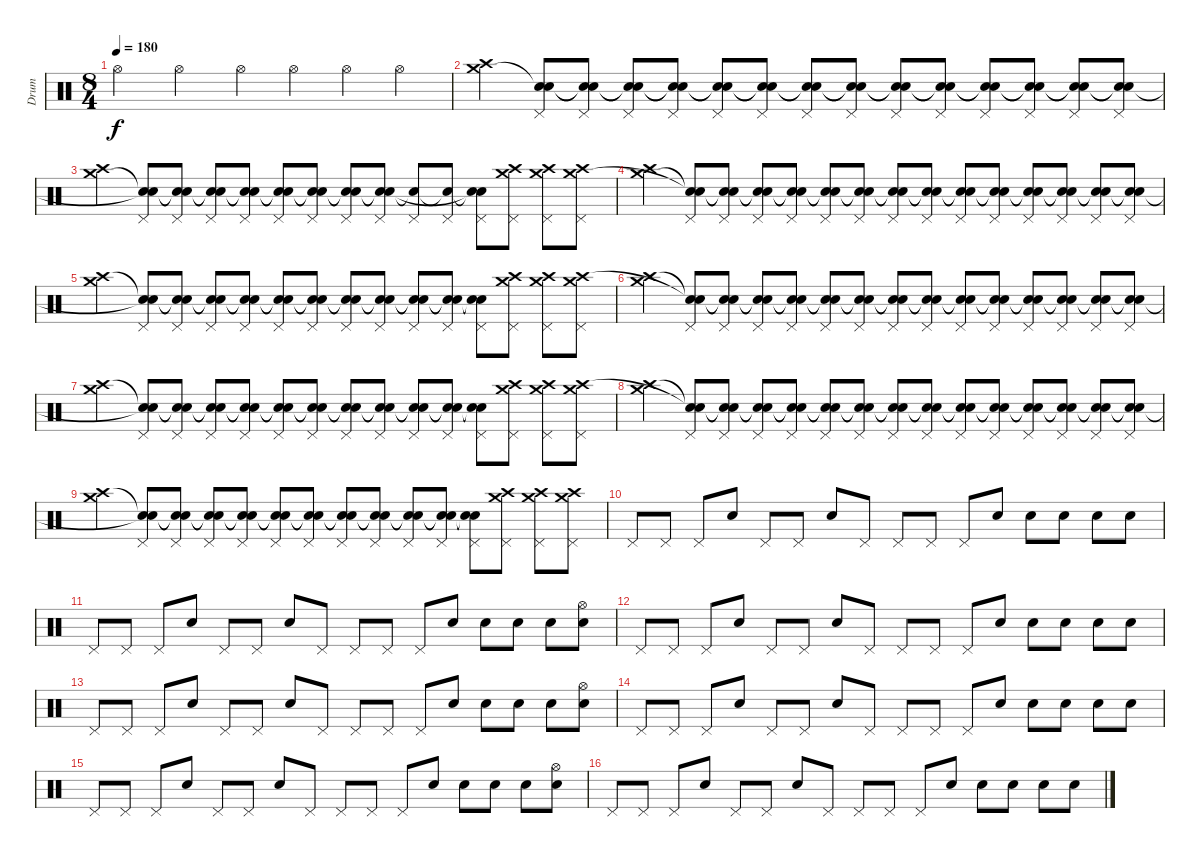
\track ("Drum" "Drum") {instrument percussion}
\staff {score}
\articulation defaults
\ts (8 4)
\tempo 180
\clef neutral
\ks c "Hi-Hat (open)".2{dy f} "Hi-Hat (open)".2 "Hi-Hat (open)".4 "Hi-Hat (open)".4 "Hi-Hat (open)".4 "Hi-Hat (open)".4
|
("Crash high (hit)" "Crash medium (hit)").4 ("Pedal Hi-Hat (hit)" "Snare (hit)"{t} "Snare (hit)").8 ("Pedal Hi-Hat (hit)" "Snare (hit)"{t} "Snare (hit)"{t}).8 ("Pedal Hi-Hat (hit)" "Snare (hit)"{t} "Snare (hit)"{t}).8 ("Pedal Hi-Hat (hit)" "Snare (hit)"{t} "Snare (hit)"{t}).8 ("Pedal Hi-Hat (hit)" "Snare (hit)"{t} "Snare (hit)"{t}).8 ("Pedal Hi-Hat (hit)" "Snare (hit)"{t} "Snare (hit)"{t}).8 ("Pedal Hi-Hat (hit)" "Snare (hit)"{t} "Snare (hit)"{t}).8 ("Pedal Hi-Hat (hit)" "Snare (hit)"{t} "Snare (hit)"{t}).8 ("Pedal Hi-Hat (hit)" "Snare (hit)"{t} "Snare (hit)"{t}).8 ("Pedal Hi-Hat (hit)" "Snare (hit)"{t} "Snare (hit)"{t}).8 ("Pedal Hi-Hat (hit)" "Snare (hit)"{t} "Snare (hit)"{t}).8 ("Pedal Hi-Hat (hit)" "Snare (hit)"{t} "Snare (hit)"{t}).8 ("Pedal Hi-Hat (hit)" "Snare (hit)"{t} "Snare (hit)"{t}).8 ("Pedal Hi-Hat (hit)" "Snare (hit)"{t} "Snare (hit)"{t}).8 |
("Crash high (hit)" "Crash medium (hit)").4 ("Pedal Hi-Hat (hit)" "Snare (hit)"{t} "Snare (hit)"{t}).8 ("Pedal Hi-Hat (hit)" "Snare (hit)"{t} "Snare (hit)"{t}).8 ("Pedal Hi-Hat (hit)" "Snare (hit)"{t} "Snare (hit)"{t}).8 ("Pedal Hi-Hat (hit)" "Snare (hit)"{t} "Snare (hit)"{t}).8 ("Pedal Hi-Hat (hit)" "Snare (hit)"{t} "Snare (hit)"{t}).8 ("Pedal Hi-Hat (hit)" "Snare (hit)"{t} "Snare (hit)"{t}).8 ("Pedal Hi-Hat (hit)" "Snare (hit)"{t} "Snare (hit)"{t}).8 ("Pedal Hi-Hat (hit)" "Snare (hit)"{t} "Snare (hit)"{t}).8 ("Pedal Hi-Hat (hit)" "Snare (hit)"{t}).8 ("Pedal Hi-Hat (hit)" "Snare (hit)"{t}).8 ("Pedal Hi-Hat (hit)" "Snare (hit)"{t} "Snare (hit)"{t}).8 ("Pedal Hi-Hat (hit)" "Crash high (hit)" "Crash medium (hit)").8 ("Pedal Hi-Hat (hit)" "Crash high (hit)" "Crash medium (hit)").8 ("Pedal Hi-Hat (hit)" "Crash high (hit)" "Crash medium (hit)").8 |
("Crash high (hit)" "Crash medium (hit)").4 ("Pedal Hi-Hat (hit)" "Snare (hit)"{t} "Snare (hit)"{t}).8 ("Pedal Hi-Hat (hit)" "Snare (hit)"{t} "Snare (hit)"{t}).8 ("Pedal Hi-Hat (hit)" "Snare (hit)"{t} "Snare (hit)"{t}).8 ("Pedal Hi-Hat (hit)" "Snare (hit)"{t} "Snare (hit)"{t}).8 ("Pedal Hi-Hat (hit)" "Snare (hit)"{t} "Snare (hit)"{t}).8 ("Pedal Hi-Hat (hit)" "Snare (hit)"{t} "Snare (hit)"{t}).8 ("Pedal Hi-Hat (hit)" "Snare (hit)"{t} "Snare (hit)"{t}).8 ("Pedal Hi-Hat (hit)" "Snare (hit)"{t} "Snare (hit)"{t}).8 ("Pedal Hi-Hat (hit)" "Snare (hit)"{t} "Snare (hit)"{t}).8 ("Pedal Hi-Hat (hit)" "Snare (hit)"{t} "Snare (hit)"{t}).8 ("Pedal Hi-Hat (hit)" "Snare (hit)"{t} "Snare (hit)"{t}).8 ("Pedal Hi-Hat (hit)" "Snare (hit)"{t} "Snare (hit)"{t}).8 ("Pedal Hi-Hat (hit)" "Snare (hit)"{t} "Snare (hit)"{t}).8 ("Pedal Hi-Hat (hit)" "Snare (hit)"{t} "Snare (hit)"{t}).8 |
("Crash medium (hit)" "Crash high (hit)").4 ("Pedal Hi-Hat (hit)" "Snare (hit)"{t} "Snare (hit)"{t}).8 ("Pedal Hi-Hat (hit)" "Snare (hit)"{t} "Snare (hit)"{t}).8 ("Pedal Hi-Hat (hit)" "Snare (hit)"{t} "Snare (hit)"{t}).8 ("Pedal Hi-Hat (hit)" "Snare (hit)"{t} "Snare (hit)"{t}).8 ("Pedal Hi-Hat (hit)" "Snare (hit)"{t} "Snare (hit)"{t}).8 ("Pedal Hi-Hat (hit)" "Snare (hit)"{t} "Snare (hit)"{t}).8 ("Pedal Hi-Hat (hit)" "Snare (hit)"{t} "Snare (hit)"{t}).8 ("Pedal Hi-Hat (hit)" "Snare (hit)"{t} "Snare (hit)"{t}).8 ("Pedal Hi-Hat (hit)" "Snare (hit)"{t} "Snare (hit)"{t}).8 ("Pedal Hi-Hat (hit)" "Snare (hit)"{t} "Snare (hit)"{t}).8 ("Pedal Hi-Hat (hit)" "Snare (hit)"{t} "Snare (hit)"{t}).8 ("Pedal Hi-Hat (hit)" "Crash medium (hit)" "Crash high (hit)").8 ("Pedal Hi-Hat (hit)" "Crash medium (hit)" "Crash high (hit)").8 ("Pedal Hi-Hat (hit)" "Crash medium (hit)" "Crash high (hit)").8 |
("Crash medium (hit)" "Crash high (hit)").4 ("Pedal Hi-Hat (hit)" "Snare (hit)"{t} "Snare (hit)"{t}).8 ("Pedal Hi-Hat (hit)" "Snare (hit)"{t} "Snare (hit)"{t}).8 ("Pedal Hi-Hat (hit)" "Snare (hit)"{t} "Snare (hit)"{t}).8 ("Pedal Hi-Hat (hit)" "Snare (hit)"{t} "Snare (hit)"{t}).8 ("Pedal Hi-Hat (hit)" "Snare (hit)"{t} "Snare (hit)"{t}).8 ("Pedal Hi-Hat (hit)" "Snare (hit)"{t} "Snare (hit)"{t}).8 ("Pedal Hi-Hat (hit)" "Snare (hit)"{t} "Snare (hit)"{t}).8 ("Pedal Hi-Hat (hit)" "Snare (hit)"{t} "Snare (hit)"{t}).8 ("Pedal Hi-Hat (hit)" "Snare (hit)"{t} "Snare (hit)"{t}).8 ("Pedal Hi-Hat (hit)" "Snare (hit)"{t} "Snare (hit)"{t}).8 ("Pedal Hi-Hat (hit)" "Snare (hit)"{t} "Snare (hit)"{t}).8 ("Pedal Hi-Hat (hit)" "Snare (hit)"{t} "Snare (hit)"{t}).8 ("Pedal Hi-Hat (hit)" "Snare (hit)"{t} "Snare (hit)"{t}).8 ("Pedal Hi-Hat (hit)" "Snare (hit)"{t} "Snare (hit)"{t}).8 |
("Crash medium (hit)" "Crash high (hit)").4 ("Pedal Hi-Hat (hit)" "Snare (hit)"{t} "Snare (hit)"{t}).8 ("Pedal Hi-Hat (hit)" "Snare (hit)"{t} "Snare (hit)"{t}).8 ("Pedal Hi-Hat (hit)" "Snare (hit)"{t} "Snare (hit)"{t}).8 ("Pedal Hi-Hat (hit)" "Snare (hit)"{t} "Snare (hit)"{t}).8 ("Pedal Hi-Hat (hit)" "Snare (hit)"{t} "Snare (hit)"{t}).8 ("Pedal Hi-Hat (hit)" "Snare (hit)"{t} "Snare (hit)"{t}).8 ("Pedal Hi-Hat (hit)" "Snare (hit)"{t} "Snare (hit)"{t}).8 ("Pedal Hi-Hat (hit)" "Snare (hit)"{t} "Snare (hit)"{t}).8 ("Pedal Hi-Hat (hit)" "Snare (hit)"{t} "Snare (hit)"{t}).8 ("Pedal Hi-Hat (hit)" "Snare (hit)"{t} "Snare (hit)"{t}).8 ("Pedal Hi-Hat (hit)" "Snare (hit)"{t} "Snare (hit)"{t}).8 ("Pedal Hi-Hat (hit)" "Crash medium (hit)" "Crash high (hit)").8 ("Pedal Hi-Hat (hit)" "Crash medium (hit)" "Crash high (hit)").8 ("Pedal Hi-Hat (hit)" "Crash medium (hit)" "Crash high (hit)").8 |
("Crash medium (hit)" "Crash high (hit)").4 ("Pedal Hi-Hat (hit)" "Snare (hit)"{t} "Snare (hit)"{t}).8 ("Pedal Hi-Hat (hit)" "Snare (hit)"{t} "Snare (hit)"{t}).8 ("Pedal Hi-Hat (hit)" "Snare (hit)"{t} "Snare (hit)"{t}).8 ("Pedal Hi-Hat (hit)" "Snare (hit)"{t} "Snare (hit)"{t}).8 ("Pedal Hi-Hat (hit)" "Snare (hit)"{t} "Snare (hit)"{t}).8 ("Pedal Hi-Hat (hit)" "Snare (hit)"{t} "Snare (hit)"{t}).8 ("Pedal Hi-Hat (hit)" "Snare (hit)"{t} "Snare (hit)"{t}).8 ("Pedal Hi-Hat (hit)" "Snare (hit)"{t} "Snare (hit)"{t}).8 ("Pedal Hi-Hat (hit)" "Snare (hit)"{t} "Snare (hit)"{t}).8 ("Pedal Hi-Hat (hit)" "Snare (hit)"{t} "Snare (hit)"{t}).8 ("Pedal Hi-Hat (hit)" "Snare (hit)"{t} "Snare (hit)"{t}).8 ("Pedal Hi-Hat (hit)" "Snare (hit)"{t} "Snare (hit)"{t}).8 ("Pedal Hi-Hat (hit)" "Snare (hit)"{t} "Snare (hit)"{t}).8 ("Pedal Hi-Hat (hit)" "Snare (hit)"{t} "Snare (hit)"{t}).8 |
("Crash medium (hit)" "Crash high (hit)").4 ("Pedal Hi-Hat (hit)" "Snare (hit)"{t} "Snare (hit)"{t}).8 ("Pedal Hi-Hat (hit)" "Snare (hit)"{t} "Snare (hit)"{t}).8 ("Pedal Hi-Hat (hit)" "Snare (hit)"{t} "Snare (hit)"{t}).8 ("Pedal Hi-Hat (hit)" "Snare (hit)"{t} "Snare (hit)"{t}).8 ("Pedal Hi-Hat (hit)" "Snare (hit)"{t} "Snare (hit)"{t}).8 ("Pedal Hi-Hat (hit)" "Snare (hit)"{t} "Snare (hit)"{t}).8 ("Pedal Hi-Hat (hit)" "Snare (hit)"{t} "Snare (hit)"{t}).8 ("Pedal Hi-Hat (hit)" "Snare (hit)"{t} "Snare (hit)"{t}).8 ("Pedal Hi-Hat (hit)" "Snare (hit)"{t} "Snare (hit)"{t}).8 ("Pedal Hi-Hat (hit)" "Snare (hit)"{t} "Snare (hit)"{t}).8 ("Pedal Hi-Hat (hit)" "Snare (hit)"{t} "Snare (hit)"{t}).8 ("Pedal Hi-Hat (hit)" "Crash medium (hit)" "Crash high (hit)").8 ("Pedal Hi-Hat (hit)" "Crash medium (hit)" "Crash high (hit)").8 ("Pedal Hi-Hat (hit)" "Crash medium (hit)" "Crash high (hit)").8 |
"Pedal Hi-Hat (hit)".8 "Pedal Hi-Hat (hit)".8 "Pedal Hi-Hat (hit)".8 "Electric Snare (hit)".8 "Pedal Hi-Hat (hit)".8 "Pedal Hi-Hat (hit)".8 "Electric Snare (hit)".8 "Pedal Hi-Hat (hit)".8 "Pedal Hi-Hat (hit)".8 "Pedal Hi-Hat (hit)".8 "Pedal Hi-Hat (hit)".8 "Electric Snare (hit)".8 "Electric Snare (hit)".8 "Electric Snare (hit)".8 "Electric Snare (hit)".8 "Electric Snare (hit)".8 |
"Pedal Hi-Hat (hit)".8 "Pedal Hi-Hat (hit)".8 "Pedal Hi-Hat (hit)".8 "Electric Snare (hit)".8 "Pedal Hi-Hat (hit)".8 "Pedal Hi-Hat (hit)".8 "Electric Snare (hit)".8 "Pedal Hi-Hat (hit)".8 "Pedal Hi-Hat (hit)".8 "Pedal Hi-Hat (hit)".8 "Pedal Hi-Hat (hit)".8 "Electric Snare (hit)".8 "Electric Snare (hit)".8 "Electric Snare (hit)".8 "Electric Snare (hit)".8 ("Electric Snare (hit)" "Hi-Hat (open)").8 |
"Pedal Hi-Hat (hit)".8 "Pedal Hi-Hat (hit)".8 "Pedal Hi-Hat (hit)".8 "Electric Snare (hit)".8 "Pedal Hi-Hat (hit)".8 "Pedal Hi-Hat (hit)".8 "Electric Snare (hit)".8 "Pedal Hi-Hat (hit)".8 "Pedal Hi-Hat (hit)".8 "Pedal Hi-Hat (hit)".8 "Pedal Hi-Hat (hit)".8 "Electric Snare (hit)".8 "Electric Snare (hit)".8 "Electric Snare (hit)".8 "Electric Snare (hit)".8 "Electric Snare (hit)".8 |
"Pedal Hi-Hat (hit)".8 "Pedal Hi-Hat (hit)".8 "Pedal Hi-Hat (hit)".8 "Electric Snare (hit)".8 "Pedal Hi-Hat (hit)".8 "Pedal Hi-Hat (hit)".8 "Electric Snare (hit)".8 "Pedal Hi-Hat (hit)".8 "Pedal Hi-Hat (hit)".8 "Pedal Hi-Hat (hit)".8 "Pedal Hi-Hat (hit)".8 "Electric Snare (hit)".8 "Electric Snare (hit)".8 "Electric Snare (hit)".8 "Electric Snare (hit)".8 ("Electric Snare (hit)" "Hi-Hat (open)").8 |
"Pedal Hi-Hat (hit)".8 "Pedal Hi-Hat (hit)".8 "Pedal Hi-Hat (hit)".8 "Electric Snare (hit)".8 "Pedal Hi-Hat (hit)".8 "Pedal Hi-Hat (hit)".8 "Electric Snare (hit)".8 "Pedal Hi-Hat (hit)".8 "Pedal Hi-Hat (hit)".8 "Pedal Hi-Hat (hit)".8 "Pedal Hi-Hat (hit)".8 "Electric Snare (hit)".8 "Electric Snare (hit)".8 "Electric Snare (hit)".8 "Electric Snare (hit)".8 "Electric Snare (hit)".8 |
"Pedal Hi-Hat (hit)".8 "Pedal Hi-Hat (hit)".8 "Pedal Hi-Hat (hit)".8 "Electric Snare (hit)".8 "Pedal Hi-Hat (hit)".8 "Pedal Hi-Hat (hit)".8 "Electric Snare (hit)".8 "Pedal Hi-Hat (hit)".8 "Pedal Hi-Hat (hit)".8 "Pedal Hi-Hat (hit)".8 "Pedal Hi-Hat (hit)".8 "Electric Snare (hit)".8 "Electric Snare (hit)".8 "Electric Snare (hit)".8 "Electric Snare (hit)".8 ("Electric Snare (hit)" "Hi-Hat (open)").8 |
"Pedal Hi-Hat (hit)".8 "Pedal Hi-Hat (hit)".8 "Pedal Hi-Hat (hit)".8 "Electric Snare (hit)".8 "Pedal Hi-Hat (hit)".8 "Pedal Hi-Hat (hit)".8 "Electric Snare (hit)".8 "Pedal Hi-Hat (hit)".8 "Pedal Hi-Hat (hit)".8 "Pedal Hi-Hat (hit)".8 "Pedal Hi-Hat (hit)".8 "Electric Snare (hit)".8 "Electric Snare (hit)".8 "Electric Snare (hit)".8 "Electric Snare (hit)".8 "Electric Snare (hit)".8
